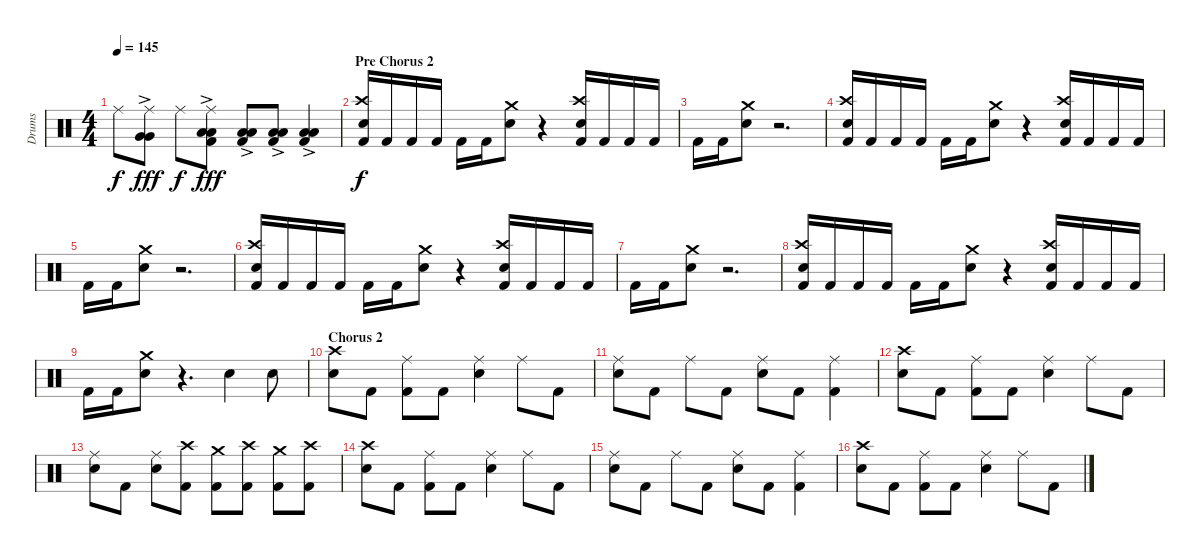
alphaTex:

\track ("Drums" "Drums") {instrument percussion}
\staff {score}
\articulation defaults
\ts (4 4)
\tempo 145
\clef neutral
\ks c "Ride (middle)".8{dy f}
("Ride (middle)" "Very Low Tom (hit)"{ac} "Very Low Tom (hit)"{ac}).8{dy fff} "Ride (middle)".8{dy f} ("Ride (middle)" "Low Floor Tom (hit)"{ac} "Low Floor Tom (hit)"{ac} "Kick (hit) 2"{ac}).8{dy fff} ("Low Floor Tom (hit)"{ac} "Low Floor Tom (hit)"{ac} "Kick (hit) 2"{ac}).8 ("Low Floor Tom (hit)"{ac} "Low Floor Tom (hit)"{ac} "Kick (hit) 2"{ac}).8 ("Low Floor Tom (hit)"{ac} "Low Floor Tom (hit)"{ac} "Kick (hit) 2"{ac}).4 |
\section ("" "Pre Chorus 2")
("Crash high (hit)" "Snare (hit) 2" "Kick (hit) 2").16{dy f} "Kick (hit) 2".16 "Kick (hit) 2".16 "Kick (hit) 2".16 "Kick (hit) 2".16 "Kick (hit) 2".16 ("Crash medium (hit)" "Snare (hit) 2").8 r.4 ("Crash high (hit)" "Snare (hit) 2" "Kick (hit) 2").16 "Kick (hit) 2".16 "Kick (hit) 2".16 "Kick (hit) 2".16 |
"Kick (hit) 2".16 "Kick (hit) 2".16 ("Crash medium (hit)" "Snare (hit) 2").8 r.2{d} |
("Crash high (hit)" "Snare (hit) 2" "Kick (hit) 2").16 "Kick (hit) 2".16 "Kick (hit) 2".16 "Kick (hit) 2".16 "Kick (hit) 2".16 "Kick (hit) 2".16 ("Crash medium (hit)" "Snare (hit) 2").8 r.4 ("Crash high (hit)" "Snare (hit) 2" "Kick (hit) 2").16 "Kick (hit) 2".16 "Kick (hit) 2".16 "Kick (hit) 2".16 |
"Kick (hit) 2".16 "Kick (hit) 2".16 ("Crash medium (hit)" "Snare (hit) 2").8 r.2{d} |
("Crash high (hit)" "Snare (hit) 2" "Kick (hit) 2").16 "Kick (hit) 2".16 "Kick (hit) 2".16 "Kick (hit) 2".16 "Kick (hit) 2".16 "Kick (hit) 2".16 ("Crash medium (hit)" "Snare (hit) 2").8 r.4 ("Crash high (hit)" "Snare (hit) 2" "Kick (hit) 2").16 "Kick (hit) 2".16 "Kick (hit) 2".16 "Kick (hit) 2".16 |
"Kick (hit) 2".16 "Kick (hit) 2".16 ("Crash medium (hit)" "Snare (hit) 2").8 r.2{d} |
("Crash high (hit)" "Snare (hit) 2" "Kick (hit) 2").16 "Kick (hit) 2".16 "Kick (hit) 2".16 "Kick (hit) 2".16 "Kick (hit) 2".16 "Kick (hit) 2".16 ("Crash medium (hit)" "Snare (hit) 2").8 r.4 ("Crash high (hit)" "Snare (hit) 2" "Kick (hit) 2").16 "Kick (hit) 2".16 "Kick (hit) 2".16 "Kick (hit) 2".16 |
"Kick (hit) 2".16 "Kick (hit) 2".16 ("Crash medium (hit)" "Snare (hit) 2").8 r.4{d} "Snare (hit) 2".4 "Snare (hit) 2".8 |
\section ("" "Chorus 2")
("Crash high (hit)" "Snare (hit) 2").8 "Kick (hit) 2".8 ("Ride (middle)" "Kick (hit) 2").8 "Kick (hit) 2".8 ("Ride (middle)" "Snare (hit) 2").4 "Ride (middle)".8 "Kick (hit) 2".8 |
("Ride (middle)" "Snare (hit) 2").8 "Kick (hit) 2".8 "Ride (middle)".8 "Kick (hit) 2".8 ("Ride (middle)" "Snare (hit) 2").8 "Kick (hit) 2".8 ("Ride (middle)" "Kick (hit) 2").4 |
("Crash high (hit)" "Snare (hit) 2").8 "Kick (hit) 2".8 ("Ride (middle)" "Kick (hit) 2").8 "Kick (hit) 2".8 ("Ride (middle)" "Snare (hit) 2").4 "Ride (middle)".8 "Kick (hit) 2".8 |
("Ride (middle)" "Snare (hit) 2").8 "Kick (hit) 2".8 ("Ride (middle)" "Snare (hit) 2").8 ("Crash high (hit)" "Kick (hit) 2").8 ("Crash medium (hit)" "Kick (hit) 2").8 ("Crash high (hit)" "Kick (hit) 2").8 ("Crash medium (hit)" "Kick (hit) 2").8 ("Crash high (hit)" "Kick (hit) 2").8 |
("Crash high (hit)" "Snare (hit) 2").8 "Kick (hit) 2".8 ("Ride (middle)" "Kick (hit) 2").8 "Kick (hit) 2".8 ("Ride (middle)" "Snare (hit) 2").4 "Ride (middle)".8 "Kick (hit) 2".8 |
("Ride (middle)" "Snare (hit) 2").8 "Kick (hit) 2".8 "Ride (middle)".8 "Kick (hit) 2".8 ("Ride (middle)" "Snare (hit) 2").8 "Kick (hit) 2".8 ("Ride (middle)" "Kick (hit) 2").4 |
("Crash high (hit)" "Snare (hit) 2").8 "Kick (hit) 2".8 ("Ride (middle)" "Kick (hit) 2").8 "Kick (hit) 2".8 ("Ride (middle)" "Snare (hit) 2").4 "Ride (middle)".8 "Kick (hit) 2".8
